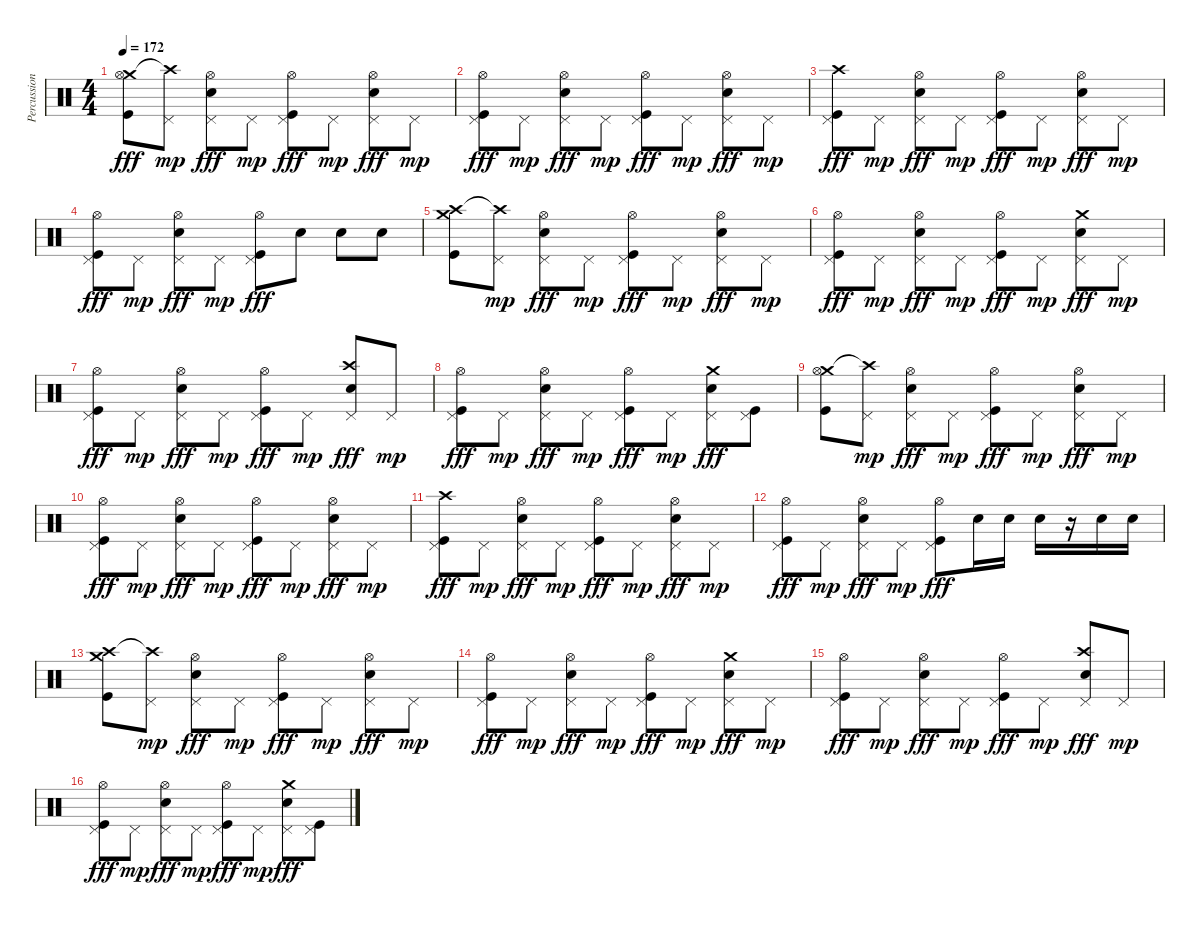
\track ("Percussion" "Percussion") {instrument percussion}
\staff {score}
\articulation defaults
\ts (4 4)
\tempo 172
\clef neutral
\ks c
("Crash medium (hit)" "Hi-Hat (open)" "Kick (hit)").8{dy fff} ("Pedal Hi-Hat (hit)" "Crash high (hit)"{t}).8{dy mp} ("Pedal Hi-Hat (hit)" "Hi-Hat (open)" "Electric Snare (hit)").8{dy fff} "Pedal Hi-Hat (hit)".8{dy mp} ("Pedal Hi-Hat (hit)" "Hi-Hat (open)" "Kick (hit)").8{dy fff} "Pedal Hi-Hat (hit)".8{dy mp} ("Pedal Hi-Hat (hit)" "Hi-Hat (open)" "Electric Snare (hit)").8{dy fff} "Pedal Hi-Hat (hit)".8{dy mp} |
("Pedal Hi-Hat (hit)" "Hi-Hat (open)" "Kick (hit)").8{dy fff} "Pedal Hi-Hat (hit)".8{dy mp} ("Pedal Hi-Hat (hit)" "Hi-Hat (open)" "Electric Snare (hit)").8{dy fff} "Pedal Hi-Hat (hit)".8{dy mp} ("Pedal Hi-Hat (hit)" "Hi-Hat (open)" "Kick (hit)").8{dy fff} "Pedal Hi-Hat (hit)".8{dy mp} ("Pedal Hi-Hat (hit)" "Hi-Hat (open)" "Electric Snare (hit)").8{dy fff} "Pedal Hi-Hat (hit)".8{dy mp} |
("Pedal Hi-Hat (hit)" "Crash high (hit)" "Kick (hit)").8{dy fff} "Pedal Hi-Hat (hit)".8{dy mp} ("Pedal Hi-Hat (hit)" "Hi-Hat (open)" "Electric Snare (hit)").8{dy fff} "Pedal Hi-Hat (hit)".8{dy mp} ("Pedal Hi-Hat (hit)" "Hi-Hat (open)" "Kick (hit)").8{dy fff} "Pedal Hi-Hat (hit)".8{dy mp} ("Pedal Hi-Hat (hit)" "Hi-Hat (open)" "Electric Snare (hit)").8{dy fff} "Pedal Hi-Hat (hit)".8{dy mp} |
("Pedal Hi-Hat (hit)" "Hi-Hat (open)" "Kick (hit)").8{dy fff} "Pedal Hi-Hat (hit)".8{dy mp} ("Pedal Hi-Hat (hit)" "Hi-Hat (open)" "Electric Snare (hit)").8{dy fff} "Pedal Hi-Hat (hit)".8{dy mp} ("Pedal Hi-Hat (hit)" "Hi-Hat (open)" "Kick (hit)").8{dy fff} "Electric Snare (hit)".8 "Electric Snare (hit)".8 "Electric Snare (hit)".8 |
("Crash medium (hit)" "Crash high (hit)" "Kick (hit)").8 ("Pedal Hi-Hat (hit)" "Crash high (hit)"{t}).8{dy mp} ("Pedal Hi-Hat (hit)" "Hi-Hat (open)" "Electric Snare (hit)").8{dy fff} "Pedal Hi-Hat (hit)".8{dy mp} ("Pedal Hi-Hat (hit)" "Hi-Hat (open)" "Kick (hit)").8{dy fff} "Pedal Hi-Hat (hit)".8{dy mp} ("Pedal Hi-Hat (hit)" "Hi-Hat (open)" "Electric Snare (hit)").8{dy fff} "Pedal Hi-Hat (hit)".8{dy mp} |
("Pedal Hi-Hat (hit)" "Hi-Hat (open)" "Kick (hit)").8{dy fff} "Pedal Hi-Hat (hit)".8{dy mp} ("Pedal Hi-Hat (hit)" "Hi-Hat (open)" "Electric Snare (hit)").8{dy fff} "Pedal Hi-Hat (hit)".8{dy mp} ("Pedal Hi-Hat (hit)" "Hi-Hat (open)" "Kick (hit)").8{dy fff} "Pedal Hi-Hat (hit)".8{dy mp} ("Pedal Hi-Hat (hit)" "Crash medium (hit)" "Electric Snare (hit)").8{dy fff} "Pedal Hi-Hat (hit)".8{dy mp} |
("Pedal Hi-Hat (hit)" "Hi-Hat (open)" "Kick (hit)").8{dy fff} "Pedal Hi-Hat (hit)".8{dy mp} ("Pedal Hi-Hat (hit)" "Hi-Hat (open)" "Electric Snare (hit)").8{dy fff} "Pedal Hi-Hat (hit)".8{dy mp} ("Pedal Hi-Hat (hit)" "Hi-Hat (open)" "Kick (hit)").8{dy fff} "Pedal Hi-Hat (hit)".8{dy mp} ("Pedal Hi-Hat (hit)" "Crash high (hit)" "Electric Snare (hit)").8{dy fff} "Pedal Hi-Hat (hit)".8{dy mp} |
("Pedal Hi-Hat (hit)" "Hi-Hat (open)" "Kick (hit)").8{dy fff} "Pedal Hi-Hat (hit)".8{dy mp} ("Pedal Hi-Hat (hit)" "Hi-Hat (open)" "Electric Snare (hit)").8{dy fff} "Pedal Hi-Hat (hit)".8{dy mp} ("Pedal Hi-Hat (hit)" "Hi-Hat (open)" "Kick (hit)").8{dy fff} "Pedal Hi-Hat (hit)".8{dy mp} ("Pedal Hi-Hat (hit)" "Crash medium (hit)" "Electric Snare (hit)").8{dy fff} ("Pedal Hi-Hat (hit)" "Kick (hit)").8 |
("Crash medium (hit)" "Hi-Hat (open)" "Kick (hit)").8 ("Pedal Hi-Hat (hit)" "Crash high (hit)"{t}).8{dy mp} ("Pedal Hi-Hat (hit)" "Hi-Hat (open)" "Electric Snare (hit)").8{dy fff} "Pedal Hi-Hat (hit)".8{dy mp} ("Pedal Hi-Hat (hit)" "Hi-Hat (open)" "Kick (hit)").8{dy fff} "Pedal Hi-Hat (hit)".8{dy mp} ("Pedal Hi-Hat (hit)" "Hi-Hat (open)" "Electric Snare (hit)").8{dy fff} "Pedal Hi-Hat (hit)".8{dy mp} |
("Pedal Hi-Hat (hit)" "Hi-Hat (open)" "Kick (hit)").8{dy fff} "Pedal Hi-Hat (hit)".8{dy mp} ("Pedal Hi-Hat (hit)" "Hi-Hat (open)" "Electric Snare (hit)").8{dy fff} "Pedal Hi-Hat (hit)".8{dy mp} ("Pedal Hi-Hat (hit)" "Hi-Hat (open)" "Kick (hit)").8{dy fff} "Pedal Hi-Hat (hit)".8{dy mp} ("Pedal Hi-Hat (hit)" "Hi-Hat (open)" "Electric Snare (hit)").8{dy fff} "Pedal Hi-Hat (hit)".8{dy mp} |
("Pedal Hi-Hat (hit)" "Crash high (hit)" "Kick (hit)").8{dy fff} "Pedal Hi-Hat (hit)".8{dy mp} ("Pedal Hi-Hat (hit)" "Hi-Hat (open)" "Electric Snare (hit)").8{dy fff} "Pedal Hi-Hat (hit)".8{dy mp} ("Pedal Hi-Hat (hit)" "Hi-Hat (open)" "Kick (hit)").8{dy fff} "Pedal Hi-Hat (hit)".8{dy mp} ("Pedal Hi-Hat (hit)" "Hi-Hat (open)" "Electric Snare (hit)").8{dy fff} "Pedal Hi-Hat (hit)".8{dy mp} |
("Pedal Hi-Hat (hit)" "Hi-Hat (open)" "Kick (hit)").8{dy fff} "Pedal Hi-Hat (hit)".8{dy mp} ("Pedal Hi-Hat (hit)" "Hi-Hat (open)" "Electric Snare (hit)").8{dy fff} "Pedal Hi-Hat (hit)".8{dy mp} ("Pedal Hi-Hat (hit)" "Hi-Hat (open)" "Kick (hit)").8{dy fff} "Electric Snare (hit)".16 "Electric Snare (hit)".16 "Electric Snare (hit)".16 r.16 "Electric Snare (hit)".16 "Electric Snare (hit)".16 |
("Crash medium (hit)" "Crash high (hit)" "Kick (hit)").8 ("Pedal Hi-Hat (hit)" "Crash high (hit)"{t}).8{dy mp} ("Pedal Hi-Hat (hit)" "Hi-Hat (open)" "Electric Snare (hit)").8{dy fff} "Pedal Hi-Hat (hit)".8{dy mp} ("Pedal Hi-Hat (hit)" "Hi-Hat (open)" "Kick (hit)").8{dy fff} "Pedal Hi-Hat (hit)".8{dy mp} ("Pedal Hi-Hat (hit)" "Hi-Hat (open)" "Electric Snare (hit)").8{dy fff} "Pedal Hi-Hat (hit)".8{dy mp} |
("Pedal Hi-Hat (hit)" "Hi-Hat (open)" "Kick (hit)").8{dy fff} "Pedal Hi-Hat (hit)".8{dy mp} ("Pedal Hi-Hat (hit)" "Hi-Hat (open)" "Electric Snare (hit)").8{dy fff} "Pedal Hi-Hat (hit)".8{dy mp} ("Pedal Hi-Hat (hit)" "Hi-Hat (open)" "Kick (hit)").8{dy fff} "Pedal Hi-Hat (hit)".8{dy mp} ("Pedal Hi-Hat (hit)" "Crash medium (hit)" "Electric Snare (hit)").8{dy fff} "Pedal Hi-Hat (hit)".8{dy mp} |
("Pedal Hi-Hat (hit)" "Hi-Hat (open)" "Kick (hit)").8{dy fff} "Pedal Hi-Hat (hit)".8{dy mp} ("Pedal Hi-Hat (hit)" "Hi-Hat (open)" "Electric Snare (hit)").8{dy fff} "Pedal Hi-Hat (hit)".8{dy mp} ("Pedal Hi-Hat (hit)" "Hi-Hat (open)" "Kick (hit)").8{dy fff} "Pedal Hi-Hat (hit)".8{dy mp} ("Pedal Hi-Hat (hit)" "Crash high (hit)" "Electric Snare (hit)").8{dy fff} "Pedal Hi-Hat (hit)".8{dy mp} |
("Pedal Hi-Hat (hit)" "Hi-Hat (open)" "Kick (hit)").8{dy fff} "Pedal Hi-Hat (hit)".8{dy mp} ("Pedal Hi-Hat (hit)" "Hi-Hat (open)" "Electric Snare (hit)").8{dy fff} "Pedal Hi-Hat (hit)".8{dy mp} ("Pedal Hi-Hat (hit)" "Hi-Hat (open)" "Kick (hit)").8{dy fff} "Pedal Hi-Hat (hit)".8{dy mp} ("Pedal Hi-Hat (hit)" "Crash medium (hit)" "Electric Snare (hit)").8{dy fff} ("Pedal Hi-Hat (hit)" "Kick (hit)").8
